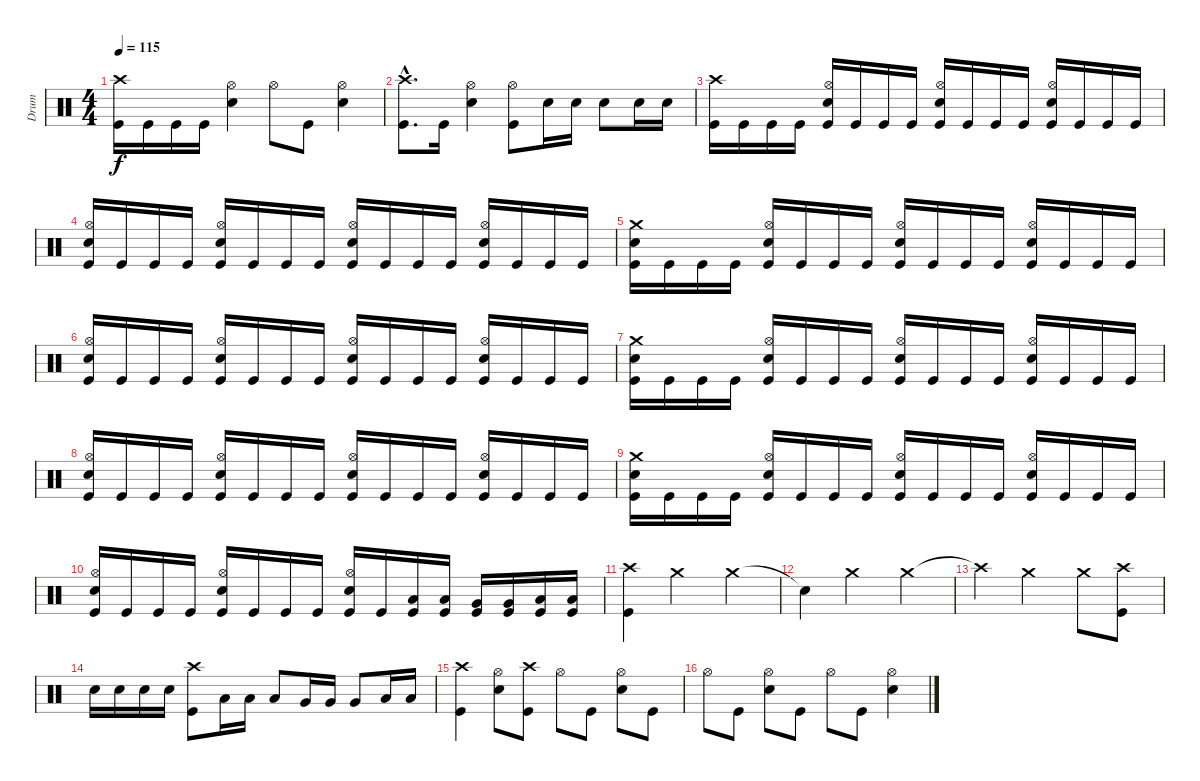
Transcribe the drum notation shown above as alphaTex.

\track ("Drum" "Drum") {instrument percussion}
\staff {score}
\articulation defaults
\ts (4 4)
\tempo 115
\clef neutral
\ks c
("Kick (hit)" "Crash high (hit)").16{dy f} "Kick (hit)".16 "Kick (hit)".16 "Kick (hit)".16 ("Hi-Hat (open)" "Snare (hit) 2").4 "Hi-Hat (open)".8 "Kick (hit)".8 ("Hi-Hat (open)" "Snare (hit) 2").4 |
("Kick (hit)"{hac} "Crash high (hit)"{hac}).8{d} "Kick (hit)".16 ("Hi-Hat (open)" "Snare (hit) 2").4 ("Kick (hit)" "Hi-Hat (open)").8 "Snare (hit) 2".16 "Snare (hit) 2".16 "Snare (hit) 2".8 "Snare (hit) 2".16 "Snare (hit) 2".16 |
("Kick (hit)" "Crash high (hit)").16 "Kick (hit)".16 "Kick (hit)".16 "Kick (hit)".16 ("Kick (hit)" "Hi-Hat (open)" "Snare (hit) 2").16 "Kick (hit)".16 "Kick (hit)".16 "Kick (hit)".16 ("Kick (hit)" "Hi-Hat (open)" "Snare (hit) 2").16 "Kick (hit)".16 "Kick (hit)".16 "Kick (hit)".16 ("Kick (hit)" "Hi-Hat (open)" "Snare (hit) 2").16 "Kick (hit)".16 "Kick (hit)".16 "Kick (hit)".16 |
("Kick (hit)" "Hi-Hat (open)" "Snare (hit) 2").16 "Kick (hit)".16 "Kick (hit)".16 "Kick (hit)".16 ("Kick (hit)" "Hi-Hat (open)" "Snare (hit) 2").16 "Kick (hit)".16 "Kick (hit)".16 "Kick (hit)".16 ("Kick (hit)" "Hi-Hat (open)" "Snare (hit) 2").16 "Kick (hit)".16 "Kick (hit)".16 "Kick (hit)".16 ("Kick (hit)" "Hi-Hat (open)" "Snare (hit) 2").16 "Kick (hit)".16 "Kick (hit)".16 "Kick (hit)".16 |
("Kick (hit)" "Crash medium (hit)" "Snare (hit) 2").16 "Kick (hit)".16 "Kick (hit)".16 "Kick (hit)".16 ("Kick (hit)" "Hi-Hat (open)" "Snare (hit) 2").16 "Kick (hit)".16 "Kick (hit)".16 "Kick (hit)".16 ("Kick (hit)" "Hi-Hat (open)" "Snare (hit) 2").16 "Kick (hit)".16 "Kick (hit)".16 "Kick (hit)".16 ("Kick (hit)" "Hi-Hat (open)" "Snare (hit) 2").16 "Kick (hit)".16 "Kick (hit)".16 "Kick (hit)".16 |
("Kick (hit)" "Hi-Hat (open)" "Snare (hit) 2").16 "Kick (hit)".16 "Kick (hit)".16 "Kick (hit)".16 ("Kick (hit)" "Hi-Hat (open)" "Snare (hit) 2").16 "Kick (hit)".16 "Kick (hit)".16 "Kick (hit)".16 ("Kick (hit)" "Hi-Hat (open)" "Snare (hit) 2").16 "Kick (hit)".16 "Kick (hit)".16 "Kick (hit)".16 ("Kick (hit)" "Hi-Hat (open)" "Snare (hit) 2").16 "Kick (hit)".16 "Kick (hit)".16 "Kick (hit)".16 |
("Kick (hit)" "Crash medium (hit)" "Snare (hit) 2").16 "Kick (hit)".16 "Kick (hit)".16 "Kick (hit)".16 ("Kick (hit)" "Hi-Hat (open)" "Snare (hit) 2").16 "Kick (hit)".16 "Kick (hit)".16 "Kick (hit)".16 ("Kick (hit)" "Hi-Hat (open)" "Snare (hit) 2").16 "Kick (hit)".16 "Kick (hit)".16 "Kick (hit)".16 ("Kick (hit)" "Hi-Hat (open)" "Snare (hit) 2").16 "Kick (hit)".16 "Kick (hit)".16 "Kick (hit)".16 |
("Kick (hit)" "Hi-Hat (open)" "Snare (hit) 2").16 "Kick (hit)".16 "Kick (hit)".16 "Kick (hit)".16 ("Kick (hit)" "Hi-Hat (open)" "Snare (hit) 2").16 "Kick (hit)".16 "Kick (hit)".16 "Kick (hit)".16 ("Kick (hit)" "Hi-Hat (open)" "Snare (hit) 2").16 "Kick (hit)".16 "Kick (hit)".16 "Kick (hit)".16 ("Kick (hit)" "Hi-Hat (open)" "Snare (hit) 2").16 "Kick (hit)".16 "Kick (hit)".16 "Kick (hit)".16 |
("Kick (hit)" "Crash medium (hit)" "Snare (hit) 2").16 "Kick (hit)".16 "Kick (hit)".16 "Kick (hit)".16 ("Kick (hit)" "Hi-Hat (open)" "Snare (hit) 2").16 "Kick (hit)".16 "Kick (hit)".16 "Kick (hit)".16 ("Kick (hit)" "Hi-Hat (open)" "Snare (hit) 2").16 "Kick (hit)".16 "Kick (hit)".16 "Kick (hit)".16 ("Kick (hit)" "Hi-Hat (open)" "Snare (hit) 2").16 "Kick (hit)".16 "Kick (hit)".16 "Kick (hit)".16 |
("Kick (hit)" "Hi-Hat (open)" "Snare (hit) 2").16 "Kick (hit)".16 "Kick (hit)".16 "Kick (hit)".16 ("Kick (hit)" "Hi-Hat (open)" "Snare (hit) 2").16 "Kick (hit)".16 "Kick (hit)".16 "Kick (hit)".16 ("Kick (hit)" "Hi-Hat (open)" "Snare (hit) 2").16 "Kick (hit)".16 ("Kick (hit)" "Low Tom (hit)").16 ("Kick (hit)" "Low Tom (hit)").16 ("Kick (hit)" "Very Low Tom (hit)").16 ("Kick (hit)" "Very Low Tom (hit)").16 ("Kick (hit)" "Low Floor Tom (hit)").16 ("Kick (hit)" "Low Floor Tom (hit)").16 |
("Kick (hit)" "Crash high (hit)").4 "Crash medium (hit)".2 "Crash medium (hit)".4 |
"Snare (hit)"{t}.4 "Crash medium (hit)".2 "Crash medium (hit)".4 |
"Crash high (hit)"{t}.4 "Crash medium (hit)".2 "Crash medium (hit)".8 ("Kick (hit)" "Crash high (hit)").8 |
"Snare (hit) 2".16 "Snare (hit) 2".16 "Snare (hit) 2".16 "Snare (hit) 2".16 ("Kick (hit)" "Crash high (hit)").8 "Low Tom (hit)".16 "Low Tom (hit)".16 "Low Tom (hit)".8 "Very Low Tom (hit)".16 "Very Low Tom (hit)".16 "Very Low Tom (hit)".8 "Low Floor Tom (hit)".16 "Low Floor Tom (hit)".16 |
("Kick (hit)" "Crash high (hit)").4 ("Hi-Hat (open)" "Snare (hit) 2").8 ("Kick (hit)" "Crash high (hit)").8 "Hi-Hat (open)".8 "Kick (hit)".8 ("Hi-Hat (open)" "Snare (hit) 2").8 "Kick (hit)".8 |
"Hi-Hat (open)".8 "Kick (hit)".8 ("Hi-Hat (open)" "Snare (hit) 2").8 "Kick (hit)".8 "Hi-Hat (open)".8 "Kick (hit)".8 ("Hi-Hat (open)" "Snare (hit) 2").4
